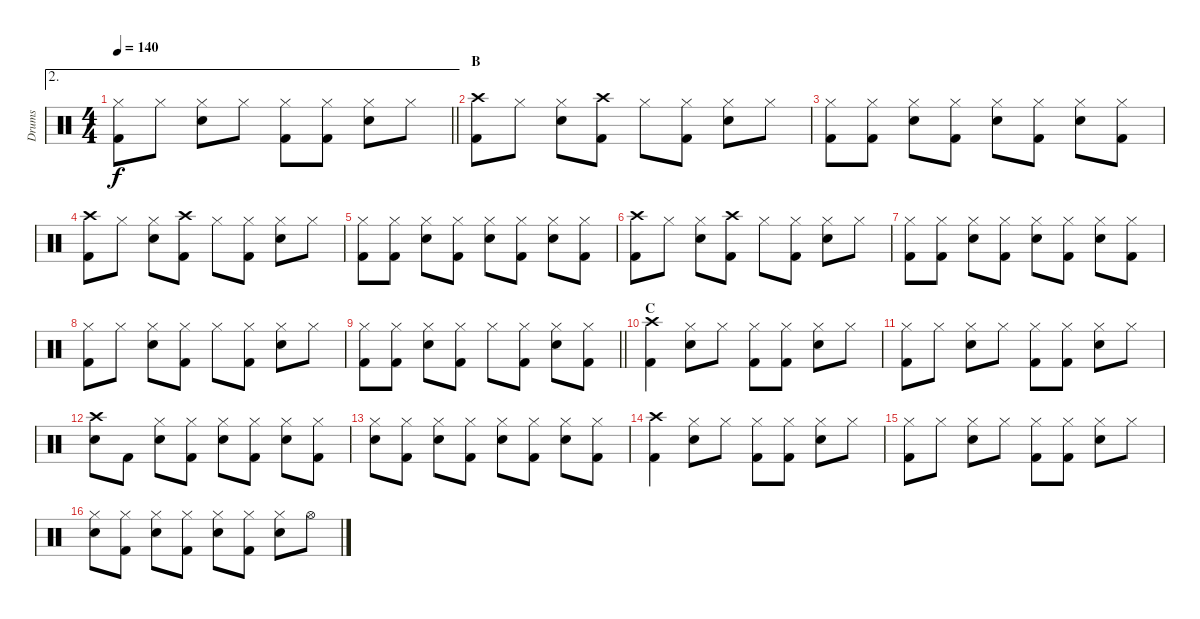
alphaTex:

\track ("Drums" "Drums") {instrument percussion}
\staff {score}
\articulation defaults
\ae 2
\ts (4 4)
\tempo 140
\clef neutral
\barLineRight lightlight
\ks c
("Hi-Hat (closed)" "Kick (hit) 2").8{dy f} "Hi-Hat (closed)".8 ("Hi-Hat (closed)" "Snare (hit) 2").8 "Hi-Hat (closed)".8 ("Hi-Hat (closed)" "Kick (hit) 2").8 ("Hi-Hat (closed)" "Kick (hit) 2").8 ("Hi-Hat (closed)" "Snare (hit) 2").8 "Hi-Hat (closed)".8 |
\section ("" "B")
("Crash high (hit)" "Kick (hit) 2").8 "Hi-Hat (closed)".8 ("Hi-Hat (closed)" "Snare (hit) 2").8 ("Crash high (hit)" "Kick (hit) 2").8 "Hi-Hat (closed)".8 ("Hi-Hat (closed)" "Kick (hit) 2").8 ("Hi-Hat (closed)" "Snare (hit) 2").8 "Hi-Hat (closed)".8 |
("Hi-Hat (closed)" "Kick (hit) 2").8 ("Hi-Hat (closed)" "Kick (hit) 2").8 ("Hi-Hat (closed)" "Snare (hit) 2").8 ("Hi-Hat (closed)" "Kick (hit) 2").8 ("Hi-Hat (closed)" "Snare (hit) 2").8 ("Hi-Hat (closed)" "Kick (hit) 2").8 ("Hi-Hat (closed)" "Snare (hit) 2").8 ("Hi-Hat (closed)" "Kick (hit) 2").8 |
("Crash high (hit)" "Kick (hit) 2").8 "Hi-Hat (closed)".8 ("Hi-Hat (closed)" "Snare (hit) 2").8 ("Crash high (hit)" "Kick (hit) 2").8 "Hi-Hat (closed)".8 ("Hi-Hat (closed)" "Kick (hit) 2").8 ("Hi-Hat (closed)" "Snare (hit) 2").8 "Hi-Hat (closed)".8 |
("Hi-Hat (closed)" "Kick (hit) 2").8 ("Hi-Hat (closed)" "Kick (hit) 2").8 ("Hi-Hat (closed)" "Snare (hit) 2").8 ("Hi-Hat (closed)" "Kick (hit) 2").8 ("Hi-Hat (closed)" "Snare (hit) 2").8 ("Hi-Hat (closed)" "Kick (hit) 2").8 ("Hi-Hat (closed)" "Snare (hit) 2").8 ("Hi-Hat (closed)" "Kick (hit) 2").8 |
("Crash high (hit)" "Kick (hit) 2").8 "Hi-Hat (closed)".8 ("Hi-Hat (closed)" "Snare (hit) 2").8 ("Crash high (hit)" "Kick (hit) 2").8 "Hi-Hat (closed)".8 ("Hi-Hat (closed)" "Kick (hit) 2").8 ("Hi-Hat (closed)" "Snare (hit) 2").8 "Hi-Hat (closed)".8 |
("Hi-Hat (closed)" "Kick (hit) 2").8 ("Hi-Hat (closed)" "Kick (hit) 2").8 ("Hi-Hat (closed)" "Snare (hit) 2").8 ("Hi-Hat (closed)" "Kick (hit) 2").8 ("Hi-Hat (closed)" "Snare (hit) 2").8 ("Hi-Hat (closed)" "Kick (hit) 2").8 ("Hi-Hat (closed)" "Snare (hit) 2").8 ("Hi-Hat (closed)" "Kick (hit) 2").8 |
("Hi-Hat (closed)" "Kick (hit) 2").8 "Hi-Hat (closed)".8 ("Hi-Hat (closed)" "Snare (hit) 2").8 ("Hi-Hat (closed)" "Kick (hit) 2").8 "Hi-Hat (closed)".8 ("Hi-Hat (closed)" "Kick (hit) 2").8 ("Hi-Hat (closed)" "Snare (hit) 2").8 "Hi-Hat (closed)".8 |
\barLineRight lightlight
("Hi-Hat (closed)" "Kick (hit) 2").8 ("Hi-Hat (closed)" "Kick (hit) 2").8 ("Hi-Hat (closed)" "Snare (hit) 2").8 ("Hi-Hat (closed)" "Kick (hit) 2").8 "Hi-Hat (closed)".8 ("Hi-Hat (closed)" "Kick (hit) 2").8 ("Hi-Hat (closed)" "Snare (hit) 2").8 ("Hi-Hat (closed)" "Kick (hit) 2").8 |
\section ("" "C")
("Crash high (hit)" "Kick (hit) 2").4 ("Hi-Hat (closed)" "Snare (hit) 2").8 "Hi-Hat (closed)".8 ("Hi-Hat (closed)" "Kick (hit) 2").8 ("Hi-Hat (closed)" "Kick (hit) 2").8 ("Hi-Hat (closed)" "Snare (hit) 2").8 "Hi-Hat (closed)".8 |
("Hi-Hat (closed)" "Kick (hit) 2").8 "Hi-Hat (closed)".8 ("Hi-Hat (closed)" "Snare (hit) 2").8 "Hi-Hat (closed)".8 ("Hi-Hat (closed)" "Kick (hit) 2").8 ("Hi-Hat (closed)" "Kick (hit) 2").8 ("Hi-Hat (closed)" "Snare (hit) 2").8 "Hi-Hat (closed)".8 |
("Crash high (hit)" "Snare (hit) 2").8 "Kick (hit) 2".8 ("Hi-Hat (closed)" "Snare (hit) 2").8 ("Hi-Hat (closed)" "Kick (hit) 2").8 ("Hi-Hat (closed)" "Snare (hit) 2").8 ("Hi-Hat (closed)" "Kick (hit) 2").8 ("Hi-Hat (closed)" "Snare (hit) 2").8 ("Hi-Hat (closed)" "Kick (hit) 2").8 |
("Hi-Hat (closed)" "Snare (hit) 2").8 ("Hi-Hat (closed)" "Kick (hit) 2").8 ("Hi-Hat (closed)" "Snare (hit) 2").8 ("Hi-Hat (closed)" "Kick (hit) 2").8 ("Hi-Hat (closed)" "Snare (hit) 2").8 ("Hi-Hat (closed)" "Kick (hit) 2").8 ("Hi-Hat (closed)" "Snare (hit) 2").8 ("Hi-Hat (closed)" "Kick (hit) 2").8 |
("Crash high (hit)" "Kick (hit) 2").4 ("Hi-Hat (closed)" "Snare (hit) 2").8 "Hi-Hat (closed)".8 ("Hi-Hat (closed)" "Kick (hit) 2").8 ("Hi-Hat (closed)" "Kick (hit) 2").8 ("Hi-Hat (closed)" "Snare (hit) 2").8 "Hi-Hat (closed)".8 |
("Hi-Hat (closed)" "Kick (hit) 2").8 "Hi-Hat (closed)".8 ("Hi-Hat (closed)" "Snare (hit) 2").8 "Hi-Hat (closed)".8 ("Hi-Hat (closed)" "Kick (hit) 2").8 ("Hi-Hat (closed)" "Kick (hit) 2").8 ("Hi-Hat (closed)" "Snare (hit) 2").8 "Hi-Hat (closed)".8 |
("Hi-Hat (closed)" "Snare (hit) 2").8 ("Hi-Hat (closed)" "Kick (hit) 2").8 ("Hi-Hat (closed)" "Snare (hit) 2").8 ("Hi-Hat (closed)" "Kick (hit) 2").8 ("Hi-Hat (closed)" "Snare (hit) 2").8 ("Hi-Hat (closed)" "Kick (hit) 2").8 ("Hi-Hat (closed)" "Snare (hit) 2").8 "Hi-Hat (open)".8
